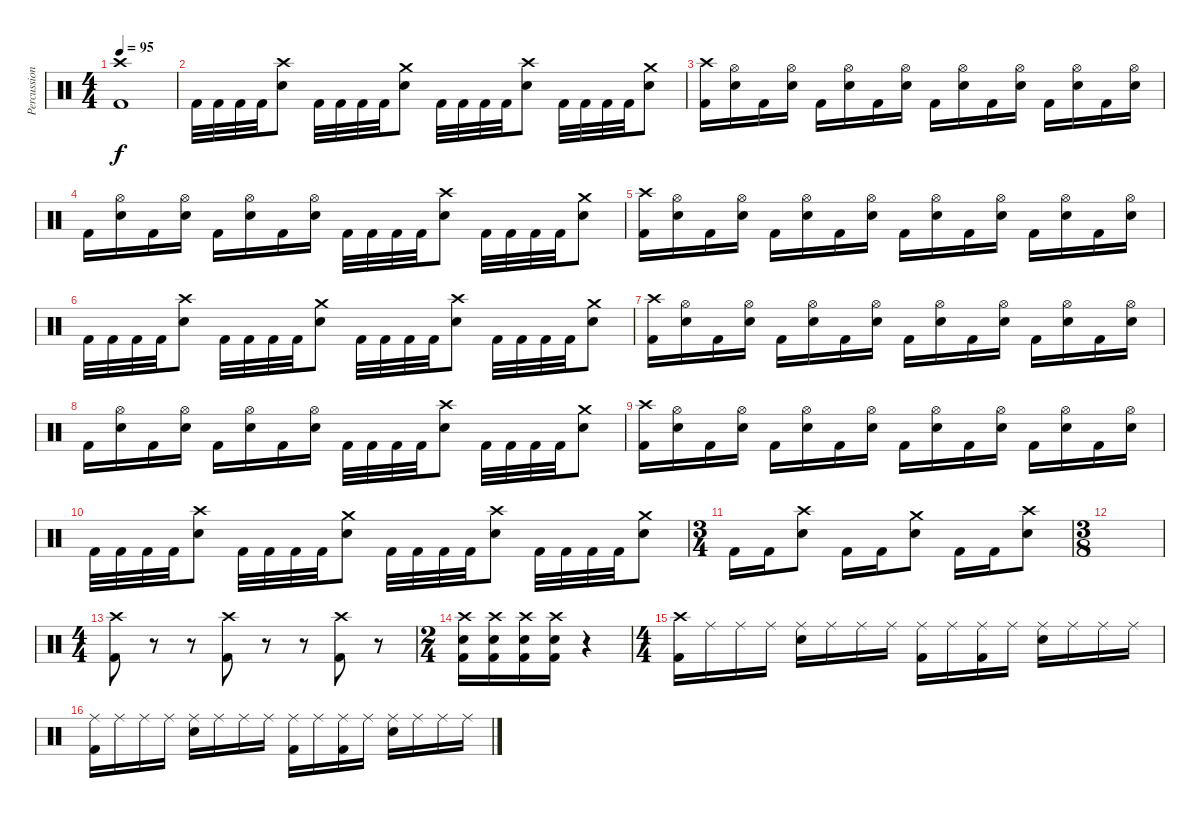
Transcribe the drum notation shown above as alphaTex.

\track ("Percussions" "Percussion") {instrument percussion}
\staff {score}
\articulation defaults
\ts (4 4)
\tempo 95
\clef neutral
\ks c
("Crash high (hit)" "Kick (hit) 2").1{dy f} |
"Kick (hit) 2".32 "Kick (hit) 2".32 "Kick (hit) 2".32 "Kick (hit) 2".32 ("Crash high (hit)" "Snare (hit) 2").8 "Kick (hit) 2".32 "Kick (hit) 2".32 "Kick (hit) 2".32 "Kick (hit) 2".32 ("Crash medium (hit)" "Snare (hit) 2").8 "Kick (hit) 2".32 "Kick (hit) 2".32 "Kick (hit) 2".32 "Kick (hit) 2".32 ("Crash high (hit)" "Snare (hit) 2").8 "Kick (hit) 2".32 "Kick (hit) 2".32 "Kick (hit) 2".32 "Kick (hit) 2".32 ("Crash medium (hit)" "Snare (hit) 2").8 |
("Kick (hit) 2" "Crash high (hit)").16 ("Snare (hit) 2" "Hi-Hat (open)").16 "Kick (hit) 2".16 ("Snare (hit) 2" "Hi-Hat (open)").16 "Kick (hit) 2".16 ("Snare (hit) 2" "Hi-Hat (open)").16 "Kick (hit) 2".16 ("Snare (hit) 2" "Hi-Hat (open)").16 "Kick (hit) 2".16 ("Snare (hit) 2" "Hi-Hat (open)").16 "Kick (hit) 2".16 ("Snare (hit) 2" "Hi-Hat (open)").16 "Kick (hit) 2".16 ("Snare (hit) 2" "Hi-Hat (open)").16 "Kick (hit) 2".16 ("Snare (hit) 2" "Hi-Hat (open)").16 |
"Kick (hit) 2".16 ("Snare (hit) 2" "Hi-Hat (open)").16 "Kick (hit) 2".16 ("Snare (hit) 2" "Hi-Hat (open)").16 "Kick (hit) 2".16 ("Snare (hit) 2" "Hi-Hat (open)").16 "Kick (hit) 2".16 ("Snare (hit) 2" "Hi-Hat (open)").16 "Kick (hit) 2".32 "Kick (hit) 2".32 "Kick (hit) 2".32 "Kick (hit) 2".32 ("Crash high (hit)" "Snare (hit) 2").8 "Kick (hit) 2".32 "Kick (hit) 2".32 "Kick (hit) 2".32 "Kick (hit) 2".32 ("Crash medium (hit)" "Snare (hit) 2").8 |
("Kick (hit) 2" "Crash high (hit)").16 ("Snare (hit) 2" "Hi-Hat (open)").16 "Kick (hit) 2".16 ("Snare (hit) 2" "Hi-Hat (open)").16 "Kick (hit) 2".16 ("Snare (hit) 2" "Hi-Hat (open)").16 "Kick (hit) 2".16 ("Snare (hit) 2" "Hi-Hat (open)").16 "Kick (hit) 2".16 ("Snare (hit) 2" "Hi-Hat (open)").16 "Kick (hit) 2".16 ("Snare (hit) 2" "Hi-Hat (open)").16 "Kick (hit) 2".16 ("Snare (hit) 2" "Hi-Hat (open)").16 "Kick (hit) 2".16 ("Snare (hit) 2" "Hi-Hat (open)").16 |
"Kick (hit) 2".32 "Kick (hit) 2".32 "Kick (hit) 2".32 "Kick (hit) 2".32 ("Crash high (hit)" "Snare (hit) 2").8 "Kick (hit) 2".32 "Kick (hit) 2".32 "Kick (hit) 2".32 "Kick (hit) 2".32 ("Crash medium (hit)" "Snare (hit) 2").8 "Kick (hit) 2".32 "Kick (hit) 2".32 "Kick (hit) 2".32 "Kick (hit) 2".32 ("Crash high (hit)" "Snare (hit) 2").8 "Kick (hit) 2".32 "Kick (hit) 2".32 "Kick (hit) 2".32 "Kick (hit) 2".32 ("Crash medium (hit)" "Snare (hit) 2").8 |
("Kick (hit) 2" "Crash high (hit)").16 ("Snare (hit) 2" "Hi-Hat (open)").16 "Kick (hit) 2".16 ("Snare (hit) 2" "Hi-Hat (open)").16 "Kick (hit) 2".16 ("Snare (hit) 2" "Hi-Hat (open)").16 "Kick (hit) 2".16 ("Snare (hit) 2" "Hi-Hat (open)").16 "Kick (hit) 2".16 ("Snare (hit) 2" "Hi-Hat (open)").16 "Kick (hit) 2".16 ("Snare (hit) 2" "Hi-Hat (open)").16 "Kick (hit) 2".16 ("Snare (hit) 2" "Hi-Hat (open)").16 "Kick (hit) 2".16 ("Snare (hit) 2" "Hi-Hat (open)").16 |
"Kick (hit) 2".16 ("Snare (hit) 2" "Hi-Hat (open)").16 "Kick (hit) 2".16 ("Snare (hit) 2" "Hi-Hat (open)").16 "Kick (hit) 2".16 ("Snare (hit) 2" "Hi-Hat (open)").16 "Kick (hit) 2".16 ("Snare (hit) 2" "Hi-Hat (open)").16 "Kick (hit) 2".32 "Kick (hit) 2".32 "Kick (hit) 2".32 "Kick (hit) 2".32 ("Crash high (hit)" "Snare (hit) 2").8 "Kick (hit) 2".32 "Kick (hit) 2".32 "Kick (hit) 2".32 "Kick (hit) 2".32 ("Crash medium (hit)" "Snare (hit) 2").8 |
("Kick (hit) 2" "Crash high (hit)").16 ("Snare (hit) 2" "Hi-Hat (open)").16 "Kick (hit) 2".16 ("Snare (hit) 2" "Hi-Hat (open)").16 "Kick (hit) 2".16 ("Snare (hit) 2" "Hi-Hat (open)").16 "Kick (hit) 2".16 ("Snare (hit) 2" "Hi-Hat (open)").16 "Kick (hit) 2".16 ("Snare (hit) 2" "Hi-Hat (open)").16 "Kick (hit) 2".16 ("Snare (hit) 2" "Hi-Hat (open)").16 "Kick (hit) 2".16 ("Snare (hit) 2" "Hi-Hat (open)").16 "Kick (hit) 2".16 ("Snare (hit) 2" "Hi-Hat (open)").16 |
"Kick (hit) 2".32 "Kick (hit) 2".32 "Kick (hit) 2".32 "Kick (hit) 2".32 ("Crash high (hit)" "Snare (hit) 2").8 "Kick (hit) 2".32 "Kick (hit) 2".32 "Kick (hit) 2".32 "Kick (hit) 2".32 ("Crash medium (hit)" "Snare (hit) 2").8 "Kick (hit) 2".32 "Kick (hit) 2".32 "Kick (hit) 2".32 "Kick (hit) 2".32 ("Crash high (hit)" "Snare (hit) 2").8 "Kick (hit) 2".32 "Kick (hit) 2".32 "Kick (hit) 2".32 "Kick (hit) 2".32 ("Crash medium (hit)" "Snare (hit) 2").8 |
\ts (3 4)
"Kick (hit) 2".16 "Kick (hit) 2".16 ("Crash high (hit)" "Snare (hit) 2").8 "Kick (hit) 2".16 "Kick (hit) 2".16 ("Crash medium (hit)" "Snare (hit) 2").8 "Kick (hit) 2".16 "Kick (hit) 2".16 ("Crash high (hit)" "Snare (hit) 2").8 |
\ts (3 8)
|
\ts (4 4)
("Crash high (hit)" "Kick (hit) 2").8 r.8 r.8 ("Crash high (hit)" "Kick (hit) 2").8 r.8 r.8 ("Crash high (hit)" "Kick (hit) 2").8 r.8 |
\ts (2 4)
("Crash high (hit)" "Kick (hit) 2" "Snare (hit) 2").16 ("Crash high (hit)" "Kick (hit) 2" "Snare (hit) 2").16 ("Crash high (hit)" "Kick (hit) 2" "Snare (hit) 2").16 ("Crash high (hit)" "Kick (hit) 2" "Snare (hit) 2").16 r.4 |
\ts (4 4)
("Crash high (hit)" "Kick (hit) 2").16 "Ride (middle)".16 "Ride (middle)".16 "Ride (middle)".16 ("Ride (middle)" "Snare (hit) 2").16 "Ride (middle)".16 "Ride (middle)".16 "Ride (middle)".16 ("Ride (middle)" "Kick (hit) 2").16 "Ride (middle)".16 ("Ride (middle)" "Kick (hit) 2").16 "Ride (middle)".16 ("Ride (middle)" "Snare (hit) 2").16 "Ride (middle)".16 "Ride (middle)".16 "Ride (middle)".16 |
("Ride (middle)" "Kick (hit) 2").16 "Ride (middle)".16 "Ride (middle)".16 "Ride (middle)".16 ("Ride (middle)" "Snare (hit) 2").16 "Ride (middle)".16 "Ride (middle)".16 "Ride (middle)".16 ("Ride (middle)" "Kick (hit) 2").16 "Ride (middle)".16 ("Ride (middle)" "Kick (hit) 2").16 "Ride (middle)".16 ("Ride (middle)" "Snare (hit) 2").16 "Ride (middle)".16 "Ride (middle)".16 "Ride (middle)".16
